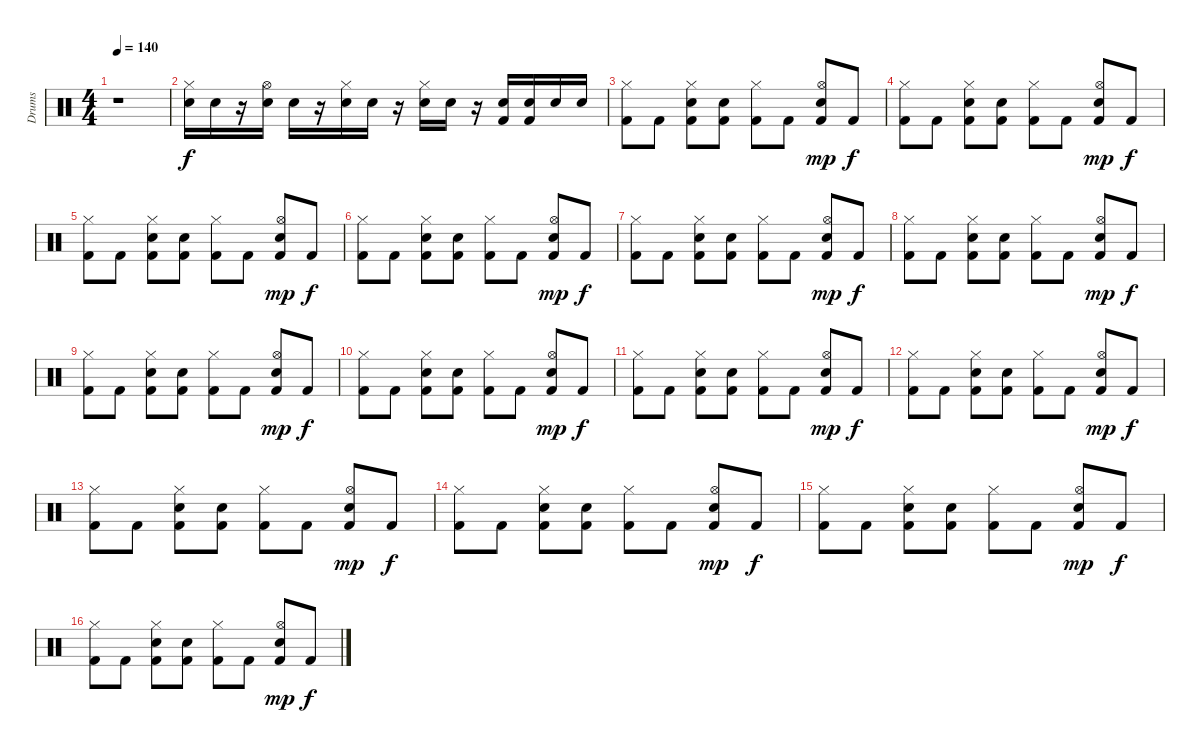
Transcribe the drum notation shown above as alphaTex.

\track ("Drums" "Drums") {instrument percussion}
\staff {score}
\articulation defaults
\ts (4 4)
\tempo 140
\clef neutral
\ks c
r.1{dy f} |
("Hi-Hat (closed)" "Electric Snare (hit)").16 "Electric Snare (hit)".16 r.16 ("Hi-Hat (open)" "Electric Snare (hit)").16 "Electric Snare (hit)".16 r.16 ("Hi-Hat (closed)" "Electric Snare (hit)").16 "Electric Snare (hit)".16 r.16 ("Hi-Hat (closed)" "Electric Snare (hit)").16 "Electric Snare (hit)".16 r.16 ("Electric Snare (hit)" "Kick (hit) 2").16 ("Electric Snare (hit)" "Kick (hit) 2").16 "Electric Snare (hit)".16 "Electric Snare (hit)".16 |
("Hi-Hat (closed)" "Kick (hit) 2").8 "Kick (hit) 2".8 ("Hi-Hat (closed)" "Electric Snare (hit)" "Kick (hit) 2").8 ("Electric Snare (hit)" "Kick (hit) 2").8 ("Hi-Hat (closed)" "Kick (hit) 2").8 "Kick (hit) 2".8 ("Hi-Hat (open)" "Electric Snare (hit)" "Kick (hit) 2").8{dy mp} "Kick (hit) 2".8{dy f} |
("Hi-Hat (closed)" "Kick (hit) 2").8 "Kick (hit) 2".8 ("Hi-Hat (closed)" "Electric Snare (hit)" "Kick (hit) 2").8 ("Electric Snare (hit)" "Kick (hit) 2").8 ("Hi-Hat (closed)" "Kick (hit) 2").8 "Kick (hit) 2".8 ("Hi-Hat (open)" "Electric Snare (hit)" "Kick (hit) 2").8{dy mp} "Kick (hit) 2".8{dy f} |
("Hi-Hat (closed)" "Kick (hit) 2").8 "Kick (hit) 2".8 ("Hi-Hat (closed)" "Electric Snare (hit)" "Kick (hit) 2").8 ("Electric Snare (hit)" "Kick (hit) 2").8 ("Hi-Hat (closed)" "Kick (hit) 2").8 "Kick (hit) 2".8 ("Hi-Hat (open)" "Electric Snare (hit)" "Kick (hit) 2").8{dy mp} "Kick (hit) 2".8{dy f} |
("Hi-Hat (closed)" "Kick (hit) 2").8 "Kick (hit) 2".8 ("Hi-Hat (closed)" "Electric Snare (hit)" "Kick (hit) 2").8 ("Electric Snare (hit)" "Kick (hit) 2").8 ("Hi-Hat (closed)" "Kick (hit) 2").8 "Kick (hit) 2".8 ("Hi-Hat (open)" "Electric Snare (hit)" "Kick (hit) 2").8{dy mp} "Kick (hit) 2".8{dy f} |
("Hi-Hat (closed)" "Kick (hit) 2").8 "Kick (hit) 2".8 ("Hi-Hat (closed)" "Electric Snare (hit)" "Kick (hit) 2").8 ("Electric Snare (hit)" "Kick (hit) 2").8 ("Hi-Hat (closed)" "Kick (hit) 2").8 "Kick (hit) 2".8 ("Hi-Hat (open)" "Electric Snare (hit)" "Kick (hit) 2").8{dy mp} "Kick (hit) 2".8{dy f} |
("Hi-Hat (closed)" "Kick (hit) 2").8 "Kick (hit) 2".8 ("Hi-Hat (closed)" "Electric Snare (hit)" "Kick (hit) 2").8 ("Electric Snare (hit)" "Kick (hit) 2").8 ("Hi-Hat (closed)" "Kick (hit) 2").8 "Kick (hit) 2".8 ("Hi-Hat (open)" "Electric Snare (hit)" "Kick (hit) 2").8{dy mp} "Kick (hit) 2".8{dy f} |
("Hi-Hat (closed)" "Kick (hit) 2").8 "Kick (hit) 2".8 ("Hi-Hat (closed)" "Electric Snare (hit)" "Kick (hit) 2").8 ("Electric Snare (hit)" "Kick (hit) 2").8 ("Hi-Hat (closed)" "Kick (hit) 2").8 "Kick (hit) 2".8 ("Hi-Hat (open)" "Electric Snare (hit)" "Kick (hit) 2").8{dy mp} "Kick (hit) 2".8{dy f} |
("Hi-Hat (closed)" "Kick (hit) 2").8 "Kick (hit) 2".8 ("Hi-Hat (closed)" "Electric Snare (hit)" "Kick (hit) 2").8 ("Electric Snare (hit)" "Kick (hit) 2").8 ("Hi-Hat (closed)" "Kick (hit) 2").8 "Kick (hit) 2".8 ("Hi-Hat (open)" "Electric Snare (hit)" "Kick (hit) 2").8{dy mp} "Kick (hit) 2".8{dy f} |
("Hi-Hat (closed)" "Kick (hit) 2").8 "Kick (hit) 2".8 ("Hi-Hat (closed)" "Electric Snare (hit)" "Kick (hit) 2").8 ("Electric Snare (hit)" "Kick (hit) 2").8 ("Hi-Hat (closed)" "Kick (hit) 2").8 "Kick (hit) 2".8 ("Hi-Hat (open)" "Electric Snare (hit)" "Kick (hit) 2").8{dy mp} "Kick (hit) 2".8{dy f} |
("Hi-Hat (closed)" "Kick (hit) 2").8 "Kick (hit) 2".8 ("Hi-Hat (closed)" "Electric Snare (hit)" "Kick (hit) 2").8 ("Electric Snare (hit)" "Kick (hit) 2").8 ("Hi-Hat (closed)" "Kick (hit) 2").8 "Kick (hit) 2".8 ("Hi-Hat (open)" "Electric Snare (hit)" "Kick (hit) 2").8{dy mp} "Kick (hit) 2".8{dy f} |
("Hi-Hat (closed)" "Kick (hit) 2").8 "Kick (hit) 2".8 ("Hi-Hat (closed)" "Electric Snare (hit)" "Kick (hit) 2").8 ("Electric Snare (hit)" "Kick (hit) 2").8 ("Hi-Hat (closed)" "Kick (hit) 2").8 "Kick (hit) 2".8 ("Hi-Hat (open)" "Electric Snare (hit)" "Kick (hit) 2").8{dy mp} "Kick (hit) 2".8{dy f} |
("Hi-Hat (closed)" "Kick (hit) 2").8 "Kick (hit) 2".8 ("Hi-Hat (closed)" "Electric Snare (hit)" "Kick (hit) 2").8 ("Electric Snare (hit)" "Kick (hit) 2").8 ("Hi-Hat (closed)" "Kick (hit) 2").8 "Kick (hit) 2".8 ("Hi-Hat (open)" "Electric Snare (hit)" "Kick (hit) 2").8{dy mp} "Kick (hit) 2".8{dy f} |
("Hi-Hat (closed)" "Kick (hit) 2").8 "Kick (hit) 2".8 ("Hi-Hat (closed)" "Electric Snare (hit)" "Kick (hit) 2").8 ("Electric Snare (hit)" "Kick (hit) 2").8 ("Hi-Hat (closed)" "Kick (hit) 2").8 "Kick (hit) 2".8 ("Hi-Hat (open)" "Electric Snare (hit)" "Kick (hit) 2").8{dy mp} "Kick (hit) 2".8{dy f} |
("Hi-Hat (closed)" "Kick (hit) 2").8 "Kick (hit) 2".8 ("Hi-Hat (closed)" "Electric Snare (hit)" "Kick (hit) 2").8 ("Electric Snare (hit)" "Kick (hit) 2").8 ("Hi-Hat (closed)" "Kick (hit) 2").8 "Kick (hit) 2".8 ("Hi-Hat (open)" "Electric Snare (hit)" "Kick (hit) 2").8{dy mp} "Kick (hit) 2".8{dy f}
